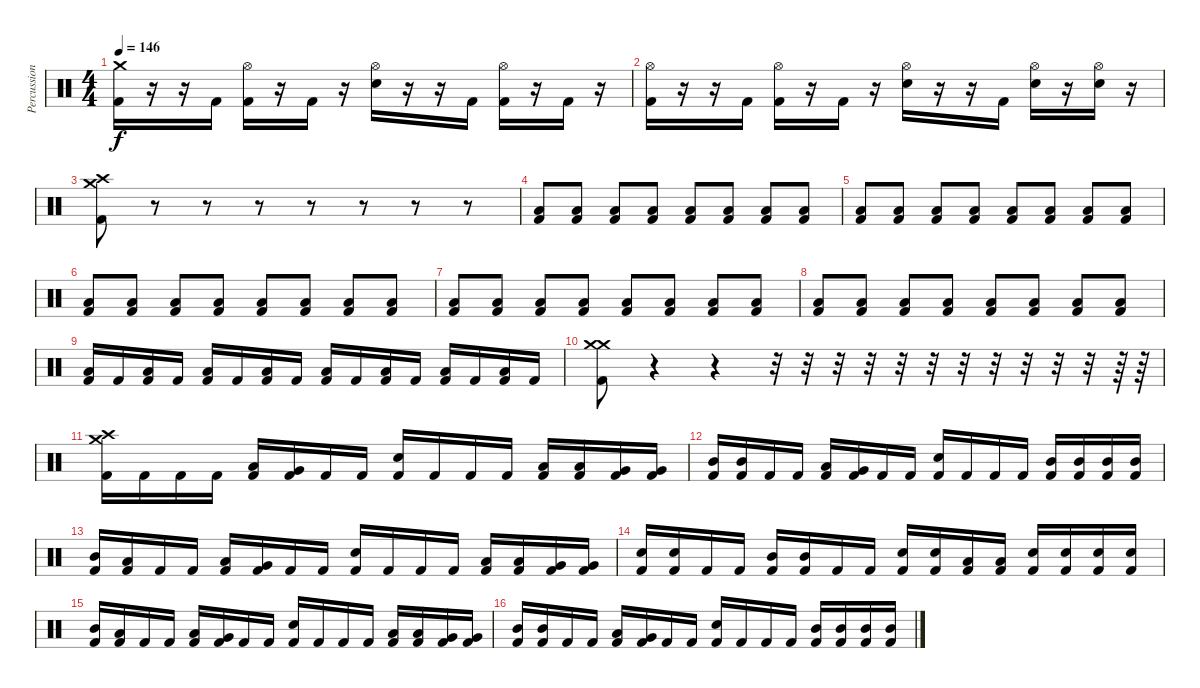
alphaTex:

\track ("Percussion" "Percussion") {instrument percussion}
\staff {score}
\articulation defaults
\ts (4 4)
\tempo 146
\clef neutral
\ks c
("Crash medium (hit)" "Kick (hit) 2").16{dy f} r.16 r.16 "Kick (hit) 2".16 ("Hi-Hat (open)" "Kick (hit) 2").16 r.16 "Kick (hit) 2".16 r.16 ("Hi-Hat (open)" "Snare (hit) 2").16 r.16 r.16 "Kick (hit) 2".16 ("Hi-Hat (open)" "Kick (hit) 2").16 r.16 "Kick (hit) 2".16 r.16 |
("Hi-Hat (open)" "Kick (hit) 2").16 r.16 r.16 "Kick (hit) 2".16 ("Hi-Hat (open)" "Kick (hit) 2").16 r.16 "Kick (hit) 2".16 r.16 ("Hi-Hat (open)" "Snare (hit) 2").16 r.16 r.16 "Kick (hit) 2".16 ("Hi-Hat (open)" "Snare (hit) 2").16 r.16 ("Hi-Hat (open)" "Snare (hit) 2").16 r.16 |
("Crash high (hit)" "Crash medium (hit)" "Kick (hit) 2").8 r.8 r.8 r.8 r.8 r.8 r.8 r.8{volume 5} |
("Low Floor Tom (hit)" "Kick (hit) 2").8{volume 13} ("Low Floor Tom (hit)" "Kick (hit) 2").8 ("Low Floor Tom (hit)" "Kick (hit) 2").8 ("Low Floor Tom (hit)" "Kick (hit) 2").8 ("Low Floor Tom (hit)" "Kick (hit) 2").8 ("Low Floor Tom (hit)" "Kick (hit) 2").8 ("Low Floor Tom (hit)" "Kick (hit) 2").8 ("Low Floor Tom (hit)" "Kick (hit) 2").8 |
("Low Floor Tom (hit)" "Kick (hit) 2").8 ("Low Floor Tom (hit)" "Kick (hit) 2").8 ("Low Floor Tom (hit)" "Kick (hit) 2").8 ("Low Floor Tom (hit)" "Kick (hit) 2").8 ("Low Floor Tom (hit)" "Kick (hit) 2").8 ("Low Floor Tom (hit)" "Kick (hit) 2").8 ("Low Floor Tom (hit)" "Kick (hit) 2").8 ("Low Floor Tom (hit)" "Kick (hit) 2").8 |
("Low Floor Tom (hit)" "Kick (hit) 2").8 ("Low Floor Tom (hit)" "Kick (hit) 2").8 ("Low Floor Tom (hit)" "Kick (hit) 2").8 ("Low Floor Tom (hit)" "Kick (hit) 2").8 ("Low Floor Tom (hit)" "Kick (hit) 2").8 ("Low Floor Tom (hit)" "Kick (hit) 2").8 ("Low Floor Tom (hit)" "Kick (hit) 2").8 ("Low Floor Tom (hit)" "Kick (hit) 2").8 |
("Low Floor Tom (hit)" "Kick (hit) 2").8 ("Low Floor Tom (hit)" "Kick (hit) 2").8 ("Low Floor Tom (hit)" "Kick (hit) 2").8 ("Low Floor Tom (hit)" "Kick (hit) 2").8 ("Low Floor Tom (hit)" "Kick (hit) 2").8 ("Low Floor Tom (hit)" "Kick (hit) 2").8 ("Low Floor Tom (hit)" "Kick (hit) 2").8 ("Low Floor Tom (hit)" "Kick (hit) 2").8 |
("Low Floor Tom (hit)" "Kick (hit) 2").8 ("Low Floor Tom (hit)" "Kick (hit) 2").8 ("Low Floor Tom (hit)" "Kick (hit) 2").8 ("Low Floor Tom (hit)" "Kick (hit) 2").8 ("Low Floor Tom (hit)" "Kick (hit) 2").8 ("Low Floor Tom (hit)" "Kick (hit) 2").8 ("Low Floor Tom (hit)" "Kick (hit) 2").8 ("Low Floor Tom (hit)" "Kick (hit) 2").8 |
("Low Floor Tom (hit)" "Kick (hit) 2").16 "Kick (hit) 2".16 ("Low Floor Tom (hit)" "Kick (hit) 2").16 "Kick (hit) 2".16 ("Low Floor Tom (hit)" "Kick (hit) 2").16 "Kick (hit) 2".16 ("Low Floor Tom (hit)" "Kick (hit) 2").16 "Kick (hit) 2".16 ("Low Floor Tom (hit)" "Kick (hit) 2").16 "Kick (hit) 2".16 ("Low Floor Tom (hit)" "Kick (hit) 2").16 "Kick (hit) 2".16 ("Low Floor Tom (hit)" "Kick (hit) 2").16 "Kick (hit) 2".16 ("Low Floor Tom (hit)" "Kick (hit) 2").16 "Kick (hit) 2".16 |
("Crash medium (hit)" "Crash medium (hit)" "Kick (hit) 2").8 r.4{volume 0} r.4 r.32 r.32 r.32 r.32 r.32 r.32 r.32 r.32 r.32 r.32 r.32 r.64 r.64{volume 13} |
("Crash high (hit)" "Crash medium (hit)" "Kick (hit) 2").16 "Kick (hit) 2".16 "Kick (hit) 2".16 "Kick (hit) 2".16 ("Low Tom (hit)" "Kick (hit) 2").16 ("Very Low Tom (hit)" "Kick (hit) 2").16 "Kick (hit) 2".16 "Kick (hit) 2".16 ("Snare (hit) 2" "Kick (hit) 2").16 "Kick (hit) 2".16 "Kick (hit) 2".16 "Kick (hit) 2".16 ("Low Tom (hit)" "Kick (hit) 2").16 ("Low Tom (hit)" "Kick (hit) 2").16 ("Very Low Tom (hit)" "Kick (hit) 2").16 ("Very Low Tom (hit)" "Kick (hit) 2").16 |
("Mid Tom (hit)" "Kick (hit) 2").16 ("Mid Tom (hit)" "Kick (hit) 2").16 "Kick (hit) 2".16 "Kick (hit) 2".16 ("Low Tom (hit)" "Kick (hit) 2").16 ("Very Low Tom (hit)" "Kick (hit) 2").16 "Kick (hit) 2".16 "Kick (hit) 2".16 ("Snare (hit) 2" "Kick (hit) 2").16 "Kick (hit) 2".16 "Kick (hit) 2".16 "Kick (hit) 2".16 ("Mid Tom (hit)" "Kick (hit) 2").16 ("Mid Tom (hit)" "Kick (hit) 2").16 ("Mid Tom (hit)" "Kick (hit) 2").16 ("Mid Tom (hit)" "Kick (hit) 2").16 |
("Mid Tom (hit)" "Kick (hit) 2").16 ("Low Tom (hit)" "Kick (hit) 2").16 "Kick (hit) 2".16 "Kick (hit) 2".16 ("Low Tom (hit)" "Kick (hit) 2").16 ("Very Low Tom (hit)" "Kick (hit) 2").16 "Kick (hit) 2".16 "Kick (hit) 2".16 ("Snare (hit) 2" "Kick (hit) 2").16 "Kick (hit) 2".16 "Kick (hit) 2".16 "Kick (hit) 2".16 ("Low Tom (hit)" "Kick (hit) 2").16 ("Low Tom (hit)" "Kick (hit) 2").16 ("Very Low Tom (hit)" "Kick (hit) 2").16 ("Very Low Tom (hit)" "Kick (hit) 2").16 |
("Snare (hit) 2" "Kick (hit) 2").16 ("Snare (hit) 2" "Kick (hit) 2").16 "Kick (hit) 2".16 "Kick (hit) 2".16 ("Mid Tom (hit)" "Kick (hit) 2").16 ("Mid Tom (hit)" "Kick (hit) 2").16 "Kick (hit) 2".16 "Kick (hit) 2".16 ("Snare (hit) 2" "Kick (hit) 2").16 ("Snare (hit) 2" "Kick (hit) 2").16 ("Low Tom (hit)" "Kick (hit) 2").16 ("Low Tom (hit)" "Kick (hit) 2").16 ("Snare (hit) 2" "Kick (hit) 2").16 ("Snare (hit) 2" "Kick (hit) 2").16 ("Snare (hit) 2" "Kick (hit) 2").16 ("Snare (hit) 2" "Kick (hit) 2").16 |
("Mid Tom (hit)" "Kick (hit) 2").16 ("Low Tom (hit)" "Kick (hit) 2").16 "Kick (hit) 2".16 "Kick (hit) 2".16 ("Low Tom (hit)" "Kick (hit) 2").16 ("Very Low Tom (hit)" "Kick (hit) 2").16 "Kick (hit) 2".16 "Kick (hit) 2".16 ("Snare (hit) 2" "Kick (hit) 2").16 "Kick (hit) 2".16 "Kick (hit) 2".16 "Kick (hit) 2".16 ("Low Tom (hit)" "Kick (hit) 2").16 ("Low Tom (hit)" "Kick (hit) 2").16 ("Very Low Tom (hit)" "Kick (hit) 2").16 ("Very Low Tom (hit)" "Kick (hit) 2").16 |
("Mid Tom (hit)" "Kick (hit) 2").16 ("Mid Tom (hit)" "Kick (hit) 2").16 "Kick (hit) 2".16 "Kick (hit) 2".16 ("Low Tom (hit)" "Kick (hit) 2").16 ("Very Low Tom (hit)" "Kick (hit) 2").16 "Kick (hit) 2".16 "Kick (hit) 2".16 ("Snare (hit) 2" "Kick (hit) 2").16 "Kick (hit) 2".16 "Kick (hit) 2".16 "Kick (hit) 2".16 ("Mid Tom (hit)" "Kick (hit) 2").16 ("Mid Tom (hit)" "Kick (hit) 2").16 ("Mid Tom (hit)" "Kick (hit) 2").16 ("Mid Tom (hit)" "Kick (hit) 2").16
